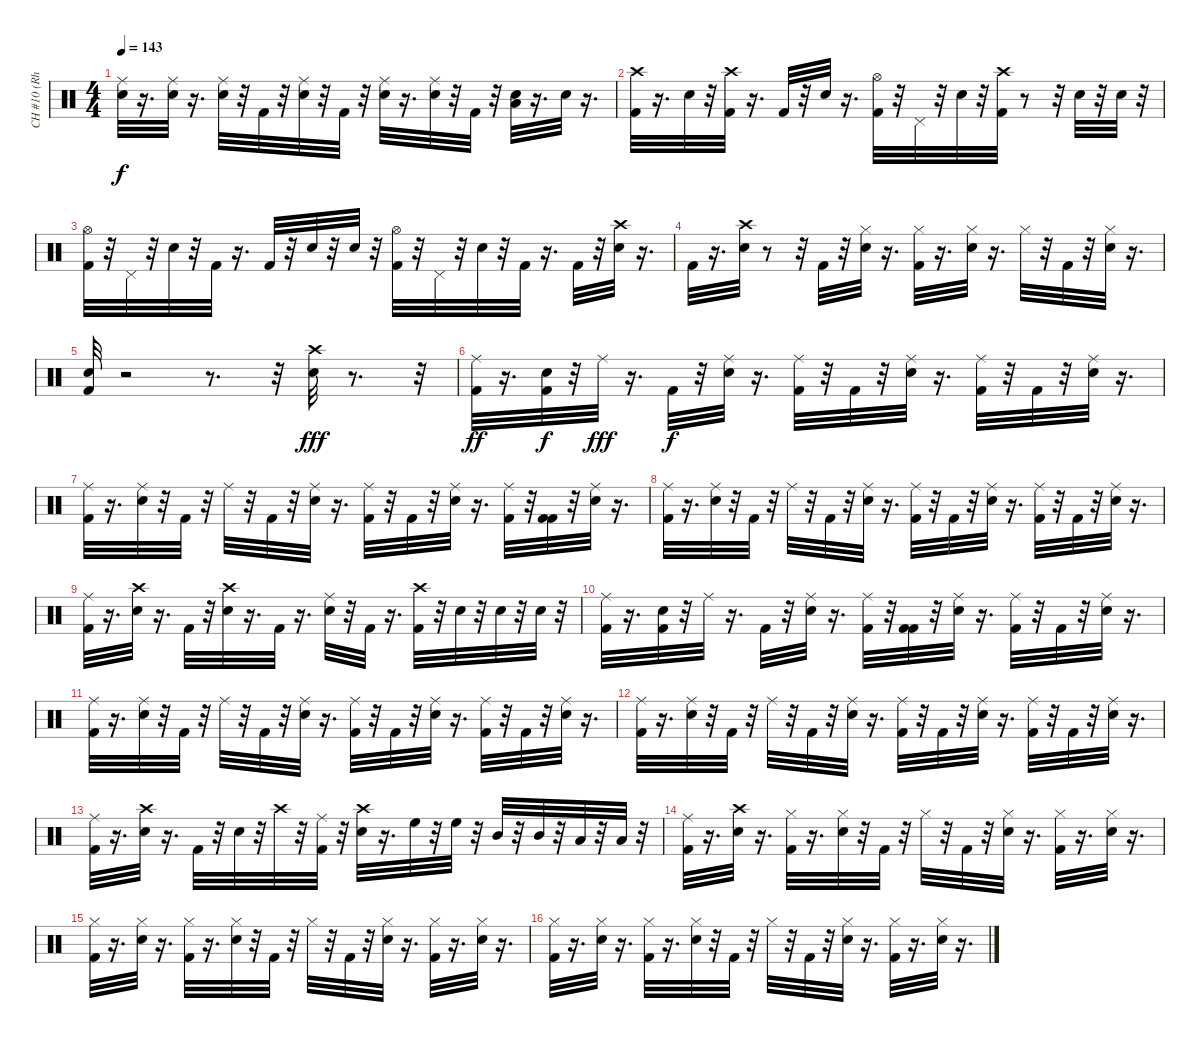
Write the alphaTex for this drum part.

\track ("CH #10 (Rhythm channel)" "CH #10 (Rh") {instrument percussion}
\staff {score}
\articulation defaults
\ts (4 4)
\tempo 143
\clef neutral
\ks c
("Electric Snare (hit)" "Ride (middle)").32{dy f} r.16{d} ("Electric Snare (hit)" "Ride (middle)").32 r.16{d} ("Electric Snare (hit)" "Ride (middle)").32 r.32 "Kick (hit) 2".32 r.32 ("Electric Snare (hit)" "Ride (middle)").32 r.32 "Kick (hit) 2".32 r.32 ("Electric Snare (hit)" "Ride (middle)").32 r.16{d} ("Electric Snare (hit)" "Ride (middle)").32 r.32 "Kick (hit) 2".32 r.32 ("Electric Snare (hit)" "Low Floor Tom (hit)").32 r.16{d} "Electric Snare (hit)".32 r.16{d} |
("Kick (hit) 2" "Crash high (hit)").32 r.16{d} "Electric Snare (hit)".32 r.32 ("Kick (hit) 2" "Crash high (hit)").32 r.16{d} "Kick (hit) 2".32 r.32 "Electric Snare (hit)".32 r.16{d} ("Kick (hit) 2" "Hi-Hat (open)").32 r.32 "Pedal Hi-Hat (hit)".32 r.32 "Electric Snare (hit)".32 r.32 ("Kick (hit) 2" "Crash high (hit)").32 r.8 r.32 "Electric Snare (hit)".32 r.32 "Electric Snare (hit)".32 r.32 |
("Hi-Hat (open)" "Kick (hit) 2").32 r.32 "Pedal Hi-Hat (hit)".32 r.32 "Electric Snare (hit)".32 r.32 "Kick (hit) 2".32 r.16{d} "Kick (hit) 2".32 r.32 "Electric Snare (hit)".32 r.32 "Electric Snare (hit)".32 r.32 ("Kick (hit) 2" "Hi-Hat (open)").32 r.32 "Pedal Hi-Hat (hit)".32 r.32 "Electric Snare (hit)".32 r.32 "Kick (hit) 2".32 r.16{d} "Kick (hit) 2".32 r.32 ("Electric Snare (hit)" "Crash high (hit)").32 r.16{d} |
"Kick (hit) 2".32 r.16{d} ("Electric Snare (hit)" "Crash high (hit)").32 r.8 r.32 "Kick (hit) 2".32 r.32 ("Electric Snare (hit)" "Hi-Hat (closed)").32 r.16{d} ("Kick (hit) 2" "Hi-Hat (closed)").32 r.16{d} ("Electric Snare (hit)" "Hi-Hat (closed)").32 r.16{d} "Hi-Hat (closed)".32 r.32 "Kick (hit) 2".32 r.32 ("Electric Snare (hit)" "Hi-Hat (closed)").32 r.16{d} |
("Kick (hit) 2" "Electric Snare (hit)").32 r.2 r.8{d} r.32 ("Electric Snare (hit)" "Crash high (hit)").32{dy fff} r.8{d} r.32 |
("Kick (hit) 2" "Ride (middle)").32{dy ff} r.16{d} ("Electric Snare (hit)" "Kick (hit) 2").32{dy f} r.32 "Ride (middle)".32{dy fff} r.16{d} "Kick (hit) 2".32{dy f} r.32 ("Electric Snare (hit)" "Ride (middle)").32 r.16{d} ("Ride (middle)" "Kick (hit) 2").32 r.32 "Kick (hit) 2".32 r.32 ("Electric Snare (hit)" "Ride (middle)").32 r.16{d} ("Kick (hit) 2" "Ride (middle)").32 r.32 "Kick (hit) 2".32 r.32 ("Electric Snare (hit)" "Ride (middle)").32 r.16{d} |
("Kick (hit) 2" "Ride (middle)").32 r.16{d} ("Electric Snare (hit)" "Ride (middle)").32 r.32 "Kick (hit) 2".32 r.32 "Ride (middle)".32 r.32 "Kick (hit) 2".32 r.32 ("Electric Snare (hit)" "Ride (middle)").32 r.16{d} ("Kick (hit) 2" "Ride (middle)").32 r.32 "Kick (hit) 2".32 r.32 ("Electric Snare (hit)" "Ride (middle)").32 r.16{d} ("Kick (hit) 2" "Ride (middle)").32 r.32 ("Kick (hit) 2" "Kick (hit) 2").32 r.32 ("Electric Snare (hit)" "Ride (middle)").32 r.16{d} |
("Kick (hit) 2" "Ride (middle)").32 r.16{d} ("Electric Snare (hit)" "Ride (middle)").32 r.32 "Kick (hit) 2".32 r.32 "Ride (middle)".32 r.32 "Kick (hit) 2".32 r.32 ("Electric Snare (hit)" "Ride (middle)").32 r.16{d} ("Kick (hit) 2" "Ride (middle)").32 r.32 "Kick (hit) 2".32 r.32 ("Electric Snare (hit)" "Ride (middle)").32 r.16{d} ("Kick (hit) 2" "Ride (middle)").32 r.32 "Kick (hit) 2".32 r.32 ("Electric Snare (hit)" "Ride (middle)").32 r.16{d} |
("Kick (hit) 2" "Ride (middle)").32 r.16{d} ("Electric Snare (hit)" "Crash high (hit)").32 r.16{d} "Kick (hit) 2".32 r.32 ("Crash high (hit)" "Electric Snare (hit)").32 r.16{d} "Kick (hit) 2".32 r.16{d} ("Electric Snare (hit)" "Ride (middle)").32 r.32 "Kick (hit) 2".32 r.16{d} ("Kick (hit) 2" "Crash high (hit)").32 r.32 "Electric Snare (hit)".32 r.32 "Electric Snare (hit)".32 r.32 "Electric Snare (hit)".32 r.32 |
("Kick (hit) 2" "Ride (middle)").32 r.16{d} ("Electric Snare (hit)" "Kick (hit) 2").32 r.32 "Ride (middle)".32 r.16{d} "Kick (hit) 2".32 r.32 ("Ride (middle)" "Electric Snare (hit)").32 r.16{d} ("Kick (hit) 2" "Ride (middle)").32 r.32 ("Kick (hit) 2" "Kick (hit) 2").32 r.32 ("Electric Snare (hit)" "Ride (middle)").32 r.16{d} ("Kick (hit) 2" "Ride (middle)").32 r.32 "Kick (hit) 2".32 r.32 ("Electric Snare (hit)" "Ride (middle)").32 r.16{d} |
("Kick (hit) 2" "Ride (middle)").32 r.16{d} ("Electric Snare (hit)" "Ride (middle)").32 r.32 "Kick (hit) 2".32 r.32 "Ride (middle)".32 r.32 "Kick (hit) 2".32 r.32 ("Electric Snare (hit)" "Ride (middle)").32 r.16{d} ("Kick (hit) 2" "Ride (middle)").32 r.32 "Kick (hit) 2".32 r.32 ("Electric Snare (hit)" "Ride (middle)").32 r.16{d} ("Kick (hit) 2" "Ride (middle)").32 r.32 "Kick (hit) 2".32 r.32 ("Electric Snare (hit)" "Ride (middle)").32 r.16{d} |
("Kick (hit) 2" "Ride (middle)").32 r.16{d} ("Electric Snare (hit)" "Ride (middle)").32 r.32 "Kick (hit) 2".32 r.32 "Ride (middle)".32 r.32 "Kick (hit) 2".32 r.32 ("Electric Snare (hit)" "Ride (middle)").32 r.16{d} ("Kick (hit) 2" "Ride (middle)").32 r.32 "Kick (hit) 2".32 r.32 ("Electric Snare (hit)" "Ride (middle)").32 r.16{d} ("Kick (hit) 2" "Ride (middle)").32 r.32 "Kick (hit) 2".32 r.32 ("Electric Snare (hit)" "Ride (middle)").32 r.16{d} |
("Kick (hit) 2" "Ride (middle)").32 r.16{d} ("Electric Snare (hit)" "Crash high (hit)").32 r.16{d} "Kick (hit) 2".32 r.32 "Electric Snare (hit)".32 r.32 "Crash high (hit)".32 r.32 ("Ride (middle)" "Kick (hit) 2").32 r.32 ("Crash high (hit)" "Electric Snare (hit)").32 r.16{d} "High Floor Tom (hit)".32 r.32 "High Floor Tom (hit)".32 r.32 "Mid Tom (hit)".32 r.32 "Mid Tom (hit)".32 r.32 "Low Floor Tom (hit)".32 r.32 "Low Floor Tom (hit)".32 r.32 |
("Kick (hit) 2" "Ride (middle)").32 r.16{d} ("Electric Snare (hit)" "Crash high (hit)").32 r.16{d} ("Kick (hit) 2" "Hi-Hat (closed)").32 r.16{d} ("Electric Snare (hit)" "Hi-Hat (closed)").32 r.32 "Kick (hit) 2".32 r.32 "Hi-Hat (closed)".32 r.32 "Kick (hit) 2".32 r.32 ("Hi-Hat (closed)" "Electric Snare (hit)").32 r.16{d} ("Hi-Hat (closed)" "Kick (hit) 2").32 r.16{d} ("Hi-Hat (closed)" "Electric Snare (hit)").32 r.16{d} |
("Kick (hit) 2" "Hi-Hat (closed)").32 r.16{d} ("Electric Snare (hit)" "Hi-Hat (closed)").32 r.16{d} ("Kick (hit) 2" "Hi-Hat (closed)").32 r.16{d} ("Electric Snare (hit)" "Hi-Hat (closed)").32 r.32 "Kick (hit) 2".32 r.32 "Hi-Hat (closed)".32 r.32 "Kick (hit) 2".32 r.32 ("Electric Snare (hit)" "Hi-Hat (closed)").32 r.16{d} ("Kick (hit) 2" "Hi-Hat (closed)").32 r.16{d} ("Electric Snare (hit)" "Hi-Hat (closed)").32 r.16{d} |
("Kick (hit) 2" "Hi-Hat (closed)").32 r.16{d} ("Electric Snare (hit)" "Hi-Hat (closed)").32 r.16{d} ("Hi-Hat (closed)" "Kick (hit) 2").32 r.16{d} ("Electric Snare (hit)" "Hi-Hat (closed)").32 r.32 "Kick (hit) 2".32 r.32 "Hi-Hat (closed)".32 r.32 "Kick (hit) 2".32 r.32 ("Electric Snare (hit)" "Hi-Hat (closed)").32 r.16{d} ("Hi-Hat (closed)" "Kick (hit) 2").32 r.16{d} ("Electric Snare (hit)" "Hi-Hat (closed)").32 r.16{d}
